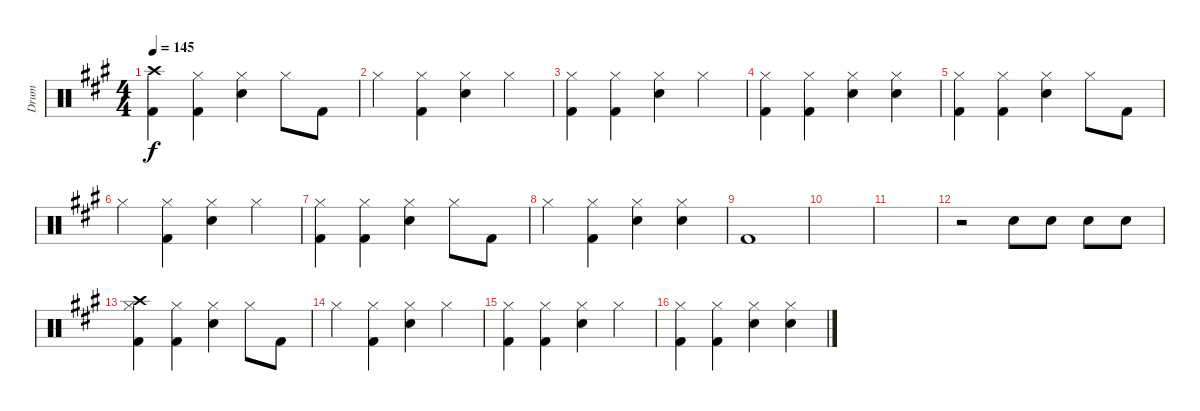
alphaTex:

\track ("Drum" "Drum") {instrument percussion}
\staff {score}
\articulation defaults
\ts (4 4)
\tempo 145
\clef neutral
\ks a
("Kick (hit) 2" "Crash high (hit)").4{dy f} ("Hi-Hat (closed)" "Kick (hit) 2").4 ("Hi-Hat (closed)" "Electric Snare (hit)").4 "Hi-Hat (closed)".8 "Kick (hit) 2".8 |
"Hi-Hat (closed)".4 ("Hi-Hat (closed)" "Kick (hit) 2").4 ("Hi-Hat (closed)" "Electric Snare (hit)").4 "Hi-Hat (closed)".4 |
("Hi-Hat (closed)" "Kick (hit) 2").4 ("Hi-Hat (closed)" "Kick (hit) 2").4 ("Hi-Hat (closed)" "Electric Snare (hit)").4 "Hi-Hat (closed)".4 |
("Hi-Hat (closed)" "Kick (hit) 2").4 ("Hi-Hat (closed)" "Kick (hit) 2").4 ("Hi-Hat (closed)" "Electric Snare (hit)").4 ("Hi-Hat (closed)" "Electric Snare (hit)").4 |
("Hi-Hat (closed)" "Kick (hit) 2").4 ("Hi-Hat (closed)" "Kick (hit) 2").4 ("Hi-Hat (closed)" "Electric Snare (hit)").4 "Hi-Hat (closed)".8 "Kick (hit) 2".8 |
"Hi-Hat (closed)".4 ("Hi-Hat (closed)" "Kick (hit) 2").4 ("Hi-Hat (closed)" "Electric Snare (hit)").4 "Hi-Hat (closed)".4 |
("Hi-Hat (closed)" "Kick (hit) 2").4 ("Hi-Hat (closed)" "Kick (hit) 2").4 ("Hi-Hat (closed)" "Electric Snare (hit)").4 "Hi-Hat (closed)".8 "Kick (hit) 2".8 |
"Hi-Hat (closed)".4 ("Hi-Hat (closed)" "Kick (hit) 2").4 ("Hi-Hat (closed)" "Electric Snare (hit)").4 ("Hi-Hat (closed)" "Electric Snare (hit)").4 |
"Kick (hit) 2".1 |
|
|
r.2 "Electric Snare (hit)".8 "Electric Snare (hit)".8 "Electric Snare (hit)".8 "Electric Snare (hit)".8 |
("Hi-Hat (closed)" "Kick (hit) 2" "Crash high (hit)").4 ("Hi-Hat (closed)" "Kick (hit) 2").4 ("Hi-Hat (closed)" "Electric Snare (hit)").4 "Hi-Hat (closed)".8 "Kick (hit) 2".8 |
"Hi-Hat (closed)".4 ("Hi-Hat (closed)" "Kick (hit) 2").4 ("Hi-Hat (closed)" "Electric Snare (hit)").4 "Hi-Hat (closed)".4 |
("Hi-Hat (closed)" "Kick (hit) 2").4 ("Hi-Hat (closed)" "Kick (hit) 2").4 ("Hi-Hat (closed)" "Electric Snare (hit)").4 "Hi-Hat (closed)".4 |
("Hi-Hat (closed)" "Kick (hit) 2").4 ("Hi-Hat (closed)" "Kick (hit) 2").4 ("Hi-Hat (closed)" "Electric Snare (hit)").4 ("Hi-Hat (closed)" "Electric Snare (hit)").4
